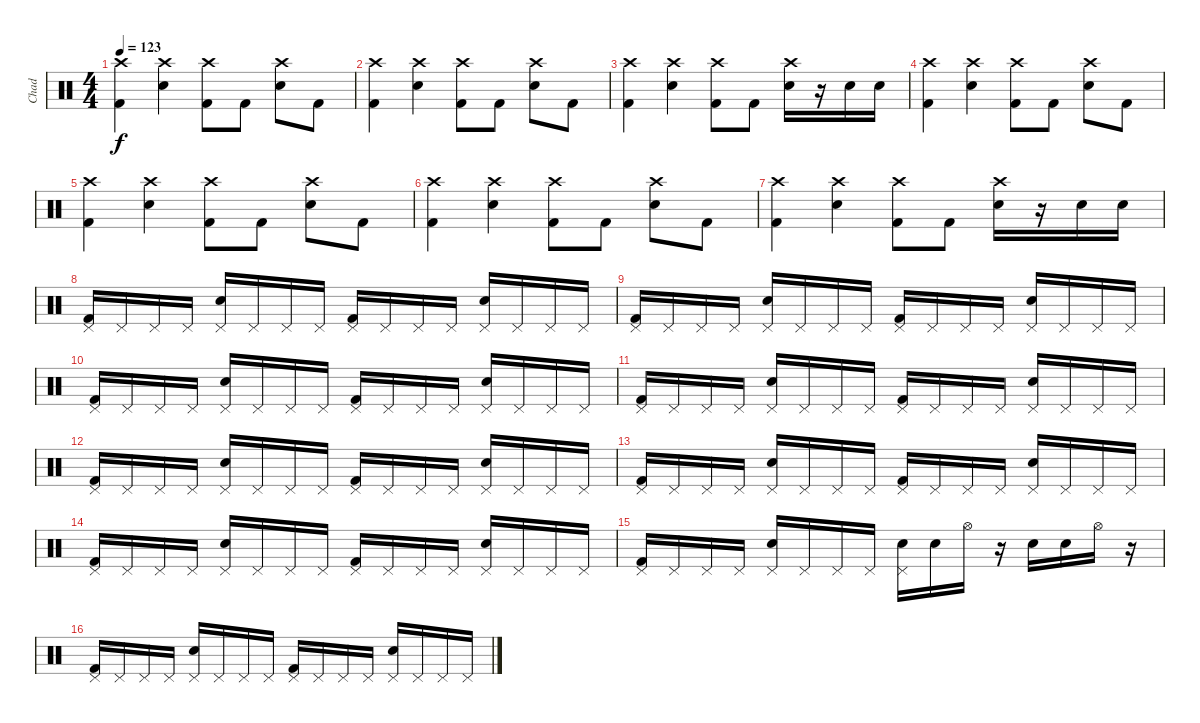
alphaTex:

\track ("Chad" "Chad") {instrument percussion}
\staff {score}
\articulation defaults
\ts (4 4)
\tempo 123
\clef neutral
\ks c
("Crash high (hit)" "Kick (hit) 2").4{dy f} ("Crash high (hit)" "Electric Snare (hit)").4 ("Crash high (hit)" "Kick (hit) 2").8 "Kick (hit) 2".8 ("Crash high (hit)" "Electric Snare (hit)").8 "Kick (hit) 2".8 |
("Crash high (hit)" "Kick (hit) 2").4 ("Crash high (hit)" "Electric Snare (hit)").4 ("Crash high (hit)" "Kick (hit) 2").8 "Kick (hit) 2".8 ("Crash high (hit)" "Electric Snare (hit)").8 "Kick (hit) 2".8 |
("Crash high (hit)" "Kick (hit) 2").4 ("Crash high (hit)" "Electric Snare (hit)").4 ("Crash high (hit)" "Kick (hit) 2").8 "Kick (hit) 2".8 ("Crash high (hit)" "Electric Snare (hit)").16 r.16 "Electric Snare (hit)".16 "Electric Snare (hit)".16 |
("Crash high (hit)" "Kick (hit) 2").4 ("Crash high (hit)" "Electric Snare (hit)").4 ("Crash high (hit)" "Kick (hit) 2").8 "Kick (hit) 2".8 ("Crash high (hit)" "Electric Snare (hit)").8 "Kick (hit) 2".8 |
("Crash high (hit)" "Kick (hit) 2").4 ("Crash high (hit)" "Electric Snare (hit)").4 ("Crash high (hit)" "Kick (hit) 2").8 "Kick (hit) 2".8 ("Crash high (hit)" "Electric Snare (hit)").8 "Kick (hit) 2".8 |
("Crash high (hit)" "Kick (hit) 2").4 ("Crash high (hit)" "Electric Snare (hit)").4 ("Crash high (hit)" "Kick (hit) 2").8 "Kick (hit) 2".8 ("Crash high (hit)" "Electric Snare (hit)").8 "Kick (hit) 2".8 |
("Crash high (hit)" "Kick (hit) 2").4 ("Crash high (hit)" "Electric Snare (hit)").4 ("Crash high (hit)" "Kick (hit) 2").8 "Kick (hit) 2".8 ("Crash high (hit)" "Electric Snare (hit)").16 r.16 "Electric Snare (hit)".16 "Electric Snare (hit)".16 |
("Pedal Hi-Hat (hit)" "Kick (hit) 2").16 "Pedal Hi-Hat (hit)".16 "Pedal Hi-Hat (hit)".16 "Pedal Hi-Hat (hit)".16 ("Pedal Hi-Hat (hit)" "Electric Snare (hit)").16 "Pedal Hi-Hat (hit)".16 "Pedal Hi-Hat (hit)".16 "Pedal Hi-Hat (hit)".16 ("Pedal Hi-Hat (hit)" "Kick (hit) 2").16 "Pedal Hi-Hat (hit)".16 "Pedal Hi-Hat (hit)".16 "Pedal Hi-Hat (hit)".16 ("Pedal Hi-Hat (hit)" "Electric Snare (hit)").16 "Pedal Hi-Hat (hit)".16 "Pedal Hi-Hat (hit)".16 "Pedal Hi-Hat (hit)".16 |
("Pedal Hi-Hat (hit)" "Kick (hit) 2").16 "Pedal Hi-Hat (hit)".16 "Pedal Hi-Hat (hit)".16 "Pedal Hi-Hat (hit)".16 ("Pedal Hi-Hat (hit)" "Electric Snare (hit)").16 "Pedal Hi-Hat (hit)".16 "Pedal Hi-Hat (hit)".16 "Pedal Hi-Hat (hit)".16 ("Pedal Hi-Hat (hit)" "Kick (hit) 2").16 "Pedal Hi-Hat (hit)".16 "Pedal Hi-Hat (hit)".16 "Pedal Hi-Hat (hit)".16 ("Pedal Hi-Hat (hit)" "Electric Snare (hit)").16 "Pedal Hi-Hat (hit)".16 "Pedal Hi-Hat (hit)".16 "Pedal Hi-Hat (hit)".16 |
("Pedal Hi-Hat (hit)" "Kick (hit) 2").16 "Pedal Hi-Hat (hit)".16 "Pedal Hi-Hat (hit)".16 "Pedal Hi-Hat (hit)".16 ("Pedal Hi-Hat (hit)" "Electric Snare (hit)").16 "Pedal Hi-Hat (hit)".16 "Pedal Hi-Hat (hit)".16 "Pedal Hi-Hat (hit)".16 ("Pedal Hi-Hat (hit)" "Kick (hit) 2").16 "Pedal Hi-Hat (hit)".16 "Pedal Hi-Hat (hit)".16 "Pedal Hi-Hat (hit)".16 ("Pedal Hi-Hat (hit)" "Electric Snare (hit)").16 "Pedal Hi-Hat (hit)".16 "Pedal Hi-Hat (hit)".16 "Pedal Hi-Hat (hit)".16 |
("Pedal Hi-Hat (hit)" "Kick (hit) 2").16 "Pedal Hi-Hat (hit)".16 "Pedal Hi-Hat (hit)".16 "Pedal Hi-Hat (hit)".16 ("Pedal Hi-Hat (hit)" "Electric Snare (hit)").16 "Pedal Hi-Hat (hit)".16 "Pedal Hi-Hat (hit)".16 "Pedal Hi-Hat (hit)".16 ("Pedal Hi-Hat (hit)" "Kick (hit) 2").16 "Pedal Hi-Hat (hit)".16 "Pedal Hi-Hat (hit)".16 "Pedal Hi-Hat (hit)".16 ("Pedal Hi-Hat (hit)" "Electric Snare (hit)").16 "Pedal Hi-Hat (hit)".16 "Pedal Hi-Hat (hit)".16 "Pedal Hi-Hat (hit)".16 |
("Pedal Hi-Hat (hit)" "Kick (hit) 2").16 "Pedal Hi-Hat (hit)".16 "Pedal Hi-Hat (hit)".16 "Pedal Hi-Hat (hit)".16 ("Pedal Hi-Hat (hit)" "Electric Snare (hit)").16 "Pedal Hi-Hat (hit)".16 "Pedal Hi-Hat (hit)".16 "Pedal Hi-Hat (hit)".16 ("Pedal Hi-Hat (hit)" "Kick (hit) 2").16 "Pedal Hi-Hat (hit)".16 "Pedal Hi-Hat (hit)".16 "Pedal Hi-Hat (hit)".16 ("Pedal Hi-Hat (hit)" "Electric Snare (hit)").16 "Pedal Hi-Hat (hit)".16 "Pedal Hi-Hat (hit)".16 "Pedal Hi-Hat (hit)".16 |
("Pedal Hi-Hat (hit)" "Kick (hit) 2").16 "Pedal Hi-Hat (hit)".16 "Pedal Hi-Hat (hit)".16 "Pedal Hi-Hat (hit)".16 ("Pedal Hi-Hat (hit)" "Electric Snare (hit)").16 "Pedal Hi-Hat (hit)".16 "Pedal Hi-Hat (hit)".16 "Pedal Hi-Hat (hit)".16 ("Pedal Hi-Hat (hit)" "Kick (hit) 2").16 "Pedal Hi-Hat (hit)".16 "Pedal Hi-Hat (hit)".16 "Pedal Hi-Hat (hit)".16 ("Pedal Hi-Hat (hit)" "Electric Snare (hit)").16 "Pedal Hi-Hat (hit)".16 "Pedal Hi-Hat (hit)".16 "Pedal Hi-Hat (hit)".16 |
("Pedal Hi-Hat (hit)" "Kick (hit) 2").16 "Pedal Hi-Hat (hit)".16 "Pedal Hi-Hat (hit)".16 "Pedal Hi-Hat (hit)".16 ("Pedal Hi-Hat (hit)" "Electric Snare (hit)").16 "Pedal Hi-Hat (hit)".16 "Pedal Hi-Hat (hit)".16 "Pedal Hi-Hat (hit)".16 ("Pedal Hi-Hat (hit)" "Kick (hit) 2").16 "Pedal Hi-Hat (hit)".16 "Pedal Hi-Hat (hit)".16 "Pedal Hi-Hat (hit)".16 ("Pedal Hi-Hat (hit)" "Electric Snare (hit)").16 "Pedal Hi-Hat (hit)".16 "Pedal Hi-Hat (hit)".16 "Pedal Hi-Hat (hit)".16 |
("Pedal Hi-Hat (hit)" "Kick (hit) 2").16 "Pedal Hi-Hat (hit)".16 "Pedal Hi-Hat (hit)".16 "Pedal Hi-Hat (hit)".16 ("Pedal Hi-Hat (hit)" "Electric Snare (hit)").16 "Pedal Hi-Hat (hit)".16 "Pedal Hi-Hat (hit)".16 "Pedal Hi-Hat (hit)".16 ("Pedal Hi-Hat (hit)" "Electric Snare (hit)").16 "Electric Snare (hit)".16 "Hi-Hat (open)".16 r.16 "Electric Snare (hit)".16 "Electric Snare (hit)".16 "Hi-Hat (open)".16 r.16 |
("Pedal Hi-Hat (hit)" "Kick (hit) 2").16 "Pedal Hi-Hat (hit)".16 "Pedal Hi-Hat (hit)".16 "Pedal Hi-Hat (hit)".16 ("Pedal Hi-Hat (hit)" "Electric Snare (hit)").16 "Pedal Hi-Hat (hit)".16 "Pedal Hi-Hat (hit)".16 "Pedal Hi-Hat (hit)".16 ("Pedal Hi-Hat (hit)" "Kick (hit) 2").16 "Pedal Hi-Hat (hit)".16 "Pedal Hi-Hat (hit)".16 "Pedal Hi-Hat (hit)".16 ("Pedal Hi-Hat (hit)" "Electric Snare (hit)").16 "Pedal Hi-Hat (hit)".16 "Pedal Hi-Hat (hit)".16 "Pedal Hi-Hat (hit)".16
